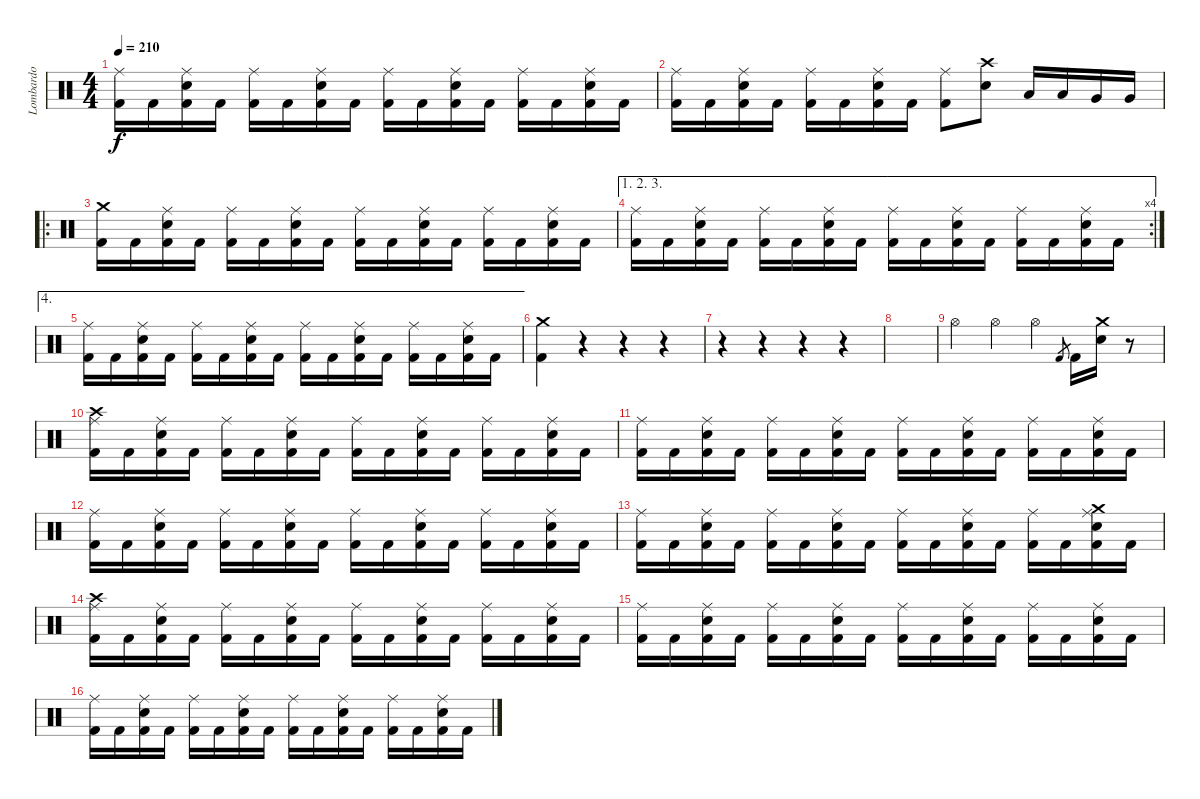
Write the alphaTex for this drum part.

\track ("Lombardo" "Lombardo") {instrument percussion}
\staff {score}
\articulation defaults
\ts (4 4)
\tempo 210
\clef neutral
\ks c
("Ride (middle)" "Kick (hit) 2").16{dy f} "Kick (hit) 2".16 ("Ride (middle)" "Snare (hit) 2" "Kick (hit) 2").16 "Kick (hit) 2".16 ("Ride (middle)" "Kick (hit) 2").16 "Kick (hit) 2".16 ("Ride (middle)" "Snare (hit) 2" "Kick (hit) 2").16 "Kick (hit) 2".16 ("Ride (middle)" "Kick (hit) 2").16 "Kick (hit) 2".16 ("Ride (middle)" "Snare (hit) 2" "Kick (hit) 2").16 "Kick (hit) 2".16 ("Ride (middle)" "Kick (hit) 2").16 "Kick (hit) 2".16 ("Ride (middle)" "Snare (hit) 2" "Kick (hit) 2").16 "Kick (hit) 2".16 |
("Ride (middle)" "Kick (hit) 2").16 "Kick (hit) 2".16 ("Ride (middle)" "Snare (hit) 2" "Kick (hit) 2").16 "Kick (hit) 2".16 ("Ride (middle)" "Kick (hit) 2").16 "Kick (hit) 2".16 ("Ride (middle)" "Snare (hit) 2" "Kick (hit) 2").16 "Kick (hit) 2".16 ("Ride (middle)" "Kick (hit) 2").8 ("Crash high (hit)" "Snare (hit) 2").8 "Low Tom (hit)".16 "Low Tom (hit)".16 "Very Low Tom (hit)".16 "Very Low Tom (hit)".16 |
\ro
("Crash medium (hit)" "Kick (hit) 2").16 "Kick (hit) 2".16 ("Ride (middle)" "Snare (hit) 2" "Kick (hit) 2").16 "Kick (hit) 2".16 ("Ride (middle)" "Kick (hit) 2").16 "Kick (hit) 2".16 ("Ride (middle)" "Snare (hit) 2" "Kick (hit) 2").16 "Kick (hit) 2".16 ("Ride (middle)" "Kick (hit) 2").16 "Kick (hit) 2".16 ("Ride (middle)" "Snare (hit) 2" "Kick (hit) 2").16 "Kick (hit) 2".16 ("Ride (middle)" "Kick (hit) 2").16 "Kick (hit) 2".16 ("Ride (middle)" "Snare (hit) 2" "Kick (hit) 2").16 "Kick (hit) 2".16 |
\ae (1 2 3)
\rc 4
("Ride (middle)" "Kick (hit) 2").16 "Kick (hit) 2".16 ("Ride (middle)" "Snare (hit) 2" "Kick (hit) 2").16 "Kick (hit) 2".16 ("Ride (middle)" "Kick (hit) 2").16 "Kick (hit) 2".16 ("Ride (middle)" "Snare (hit) 2" "Kick (hit) 2").16 "Kick (hit) 2".16 ("Ride (middle)" "Kick (hit) 2").16 "Kick (hit) 2".16 ("Ride (middle)" "Snare (hit) 2" "Kick (hit) 2").16 "Kick (hit) 2".16 ("Ride (middle)" "Kick (hit) 2").16 "Kick (hit) 2".16 ("Ride (middle)" "Snare (hit) 2" "Kick (hit) 2").16 "Kick (hit) 2".16 |
\ae 4
("Ride (middle)" "Kick (hit) 2").16 "Kick (hit) 2".16 ("Ride (middle)" "Snare (hit) 2" "Kick (hit) 2").16 "Kick (hit) 2".16 ("Ride (middle)" "Kick (hit) 2").16 "Kick (hit) 2".16 ("Ride (middle)" "Snare (hit) 2" "Kick (hit) 2").16 "Kick (hit) 2".16 ("Ride (middle)" "Kick (hit) 2").16 "Kick (hit) 2".16 ("Ride (middle)" "Snare (hit) 2" "Kick (hit) 2").16 "Kick (hit) 2".16 ("Ride (middle)" "Kick (hit) 2").16 "Kick (hit) 2".16 ("Ride (middle)" "Snare (hit) 2" "Kick (hit) 2").16 "Kick (hit) 2".16 |
("Crash medium (hit)" "Kick (hit) 2").4 r.4 r.4 r.4 |
r.4 r.4 r.4 r.4 |
|
"Hi-Hat (open)".4 "Hi-Hat (open)".4 "Hi-Hat (open)".4 "Kick (hit) 2".8{gr} "Kick (hit) 2".16 ("Crash medium (hit)" "Snare (hit) 2").16 r.8 |
("Crash high (hit)" "Ride (middle)" "Kick (hit) 2").16 "Kick (hit) 2".16 ("Ride (middle)" "Snare (hit) 2" "Kick (hit) 2").16 "Kick (hit) 2".16 ("Ride (middle)" "Kick (hit) 2").16 "Kick (hit) 2".16 ("Ride (middle)" "Snare (hit) 2" "Kick (hit) 2").16 "Kick (hit) 2".16 ("Ride (middle)" "Kick (hit) 2").16 "Kick (hit) 2".16 ("Ride (middle)" "Snare (hit) 2" "Kick (hit) 2").16 "Kick (hit) 2".16 ("Ride (middle)" "Kick (hit) 2").16 "Kick (hit) 2".16 ("Ride (middle)" "Snare (hit) 2" "Kick (hit) 2").16 "Kick (hit) 2".16 |
("Ride (middle)" "Kick (hit) 2").16 "Kick (hit) 2".16 ("Ride (middle)" "Snare (hit) 2" "Kick (hit) 2").16 "Kick (hit) 2".16 ("Ride (middle)" "Kick (hit) 2").16 "Kick (hit) 2".16 ("Ride (middle)" "Snare (hit) 2" "Kick (hit) 2").16 "Kick (hit) 2".16 ("Ride (middle)" "Kick (hit) 2").16 "Kick (hit) 2".16 ("Ride (middle)" "Snare (hit) 2" "Kick (hit) 2").16 "Kick (hit) 2".16 ("Ride (middle)" "Kick (hit) 2").16 "Kick (hit) 2".16 ("Ride (middle)" "Snare (hit) 2" "Kick (hit) 2").16 "Kick (hit) 2".16 |
("Ride (middle)" "Kick (hit) 2").16 "Kick (hit) 2".16 ("Ride (middle)" "Snare (hit) 2" "Kick (hit) 2").16 "Kick (hit) 2".16 ("Ride (middle)" "Kick (hit) 2").16 "Kick (hit) 2".16 ("Ride (middle)" "Snare (hit) 2" "Kick (hit) 2").16 "Kick (hit) 2".16 ("Ride (middle)" "Kick (hit) 2").16 "Kick (hit) 2".16 ("Ride (middle)" "Snare (hit) 2" "Kick (hit) 2").16 "Kick (hit) 2".16 ("Ride (middle)" "Kick (hit) 2").16 "Kick (hit) 2".16 ("Ride (middle)" "Snare (hit) 2" "Kick (hit) 2").16 "Kick (hit) 2".16 |
("Ride (middle)" "Kick (hit) 2").16 "Kick (hit) 2".16 ("Ride (middle)" "Snare (hit) 2" "Kick (hit) 2").16 "Kick (hit) 2".16 ("Ride (middle)" "Kick (hit) 2").16 "Kick (hit) 2".16 ("Ride (middle)" "Snare (hit) 2" "Kick (hit) 2").16 "Kick (hit) 2".16 ("Ride (middle)" "Kick (hit) 2").16 "Kick (hit) 2".16 ("Ride (middle)" "Snare (hit) 2" "Kick (hit) 2").16 "Kick (hit) 2".16 ("Ride (middle)" "Kick (hit) 2").16 "Kick (hit) 2".16 ("Crash medium (hit)" "Ride (middle)" "Snare (hit) 2" "Kick (hit) 2").16 "Kick (hit) 2".16 |
("Crash high (hit)" "Ride (middle)" "Kick (hit) 2").16 "Kick (hit) 2".16 ("Ride (middle)" "Snare (hit) 2" "Kick (hit) 2").16 "Kick (hit) 2".16 ("Ride (middle)" "Kick (hit) 2").16 "Kick (hit) 2".16 ("Ride (middle)" "Snare (hit) 2" "Kick (hit) 2").16 "Kick (hit) 2".16 ("Ride (middle)" "Kick (hit) 2").16 "Kick (hit) 2".16 ("Ride (middle)" "Snare (hit) 2" "Kick (hit) 2").16 "Kick (hit) 2".16 ("Ride (middle)" "Kick (hit) 2").16 "Kick (hit) 2".16 ("Ride (middle)" "Snare (hit) 2" "Kick (hit) 2").16 "Kick (hit) 2".16 |
("Ride (middle)" "Kick (hit) 2").16 "Kick (hit) 2".16 ("Ride (middle)" "Snare (hit) 2" "Kick (hit) 2").16 "Kick (hit) 2".16 ("Ride (middle)" "Kick (hit) 2").16 "Kick (hit) 2".16 ("Ride (middle)" "Snare (hit) 2" "Kick (hit) 2").16 "Kick (hit) 2".16 ("Ride (middle)" "Kick (hit) 2").16 "Kick (hit) 2".16 ("Ride (middle)" "Snare (hit) 2" "Kick (hit) 2").16 "Kick (hit) 2".16 ("Ride (middle)" "Kick (hit) 2").16 "Kick (hit) 2".16 ("Ride (middle)" "Snare (hit) 2" "Kick (hit) 2").16 "Kick (hit) 2".16 |
("Ride (middle)" "Kick (hit) 2").16 "Kick (hit) 2".16 ("Ride (middle)" "Snare (hit) 2" "Kick (hit) 2").16 "Kick (hit) 2".16 ("Ride (middle)" "Kick (hit) 2").16 "Kick (hit) 2".16 ("Ride (middle)" "Snare (hit) 2" "Kick (hit) 2").16 "Kick (hit) 2".16 ("Ride (middle)" "Kick (hit) 2").16 "Kick (hit) 2".16 ("Ride (middle)" "Snare (hit) 2" "Kick (hit) 2").16 "Kick (hit) 2".16 ("Ride (middle)" "Kick (hit) 2").16 "Kick (hit) 2".16 ("Ride (middle)" "Snare (hit) 2" "Kick (hit) 2").16 "Kick (hit) 2".16
